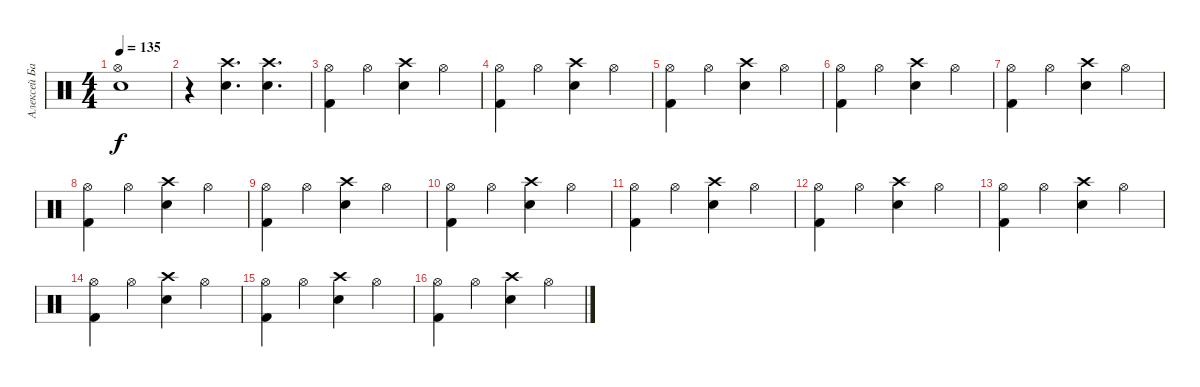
\track ("Алексей Барзилович" "Алексей Ба") {instrument percussion}
\staff {score}
\articulation defaults
\ts (4 4)
\tempo 135
\clef neutral
\ks c
("Hi-Hat (open)" "Electric Snare (hit)").1{dy f} |
r.4 ("Electric Snare (hit)" "Crash high (hit)").4{d} ("Electric Snare (hit)" "Crash high (hit)").4{d} |
("Kick (hit) 2" "Hi-Hat (open)").4 "Hi-Hat (open)".4 ("Electric Snare (hit)" "Crash high (hit)").4 "Hi-Hat (open)".4 |
("Kick (hit) 2" "Hi-Hat (open)").4 "Hi-Hat (open)".4 ("Electric Snare (hit)" "Crash high (hit)").4 "Hi-Hat (open)".4 |
("Kick (hit) 2" "Hi-Hat (open)").4 "Hi-Hat (open)".4 ("Electric Snare (hit)" "Crash high (hit)").4 "Hi-Hat (open)".4 |
("Kick (hit) 2" "Hi-Hat (open)").4 "Hi-Hat (open)".4 ("Electric Snare (hit)" "Crash high (hit)").4 "Hi-Hat (open)".4 |
("Kick (hit) 2" "Hi-Hat (open)").4 "Hi-Hat (open)".4 ("Electric Snare (hit)" "Crash high (hit)").4 "Hi-Hat (open)".4 |
("Kick (hit) 2" "Hi-Hat (open)").4 "Hi-Hat (open)".4 ("Electric Snare (hit)" "Crash high (hit)").4 "Hi-Hat (open)".4 |
("Kick (hit) 2" "Hi-Hat (open)").4 "Hi-Hat (open)".4 ("Electric Snare (hit)" "Crash high (hit)").4 "Hi-Hat (open)".4 |
("Kick (hit) 2" "Hi-Hat (open)").4 "Hi-Hat (open)".4 ("Electric Snare (hit)" "Crash high (hit)").4 "Hi-Hat (open)".4 |
("Kick (hit) 2" "Hi-Hat (open)").4 "Hi-Hat (open)".4 ("Electric Snare (hit)" "Crash high (hit)").4 "Hi-Hat (open)".4 |
("Kick (hit) 2" "Hi-Hat (open)").4 "Hi-Hat (open)".4 ("Electric Snare (hit)" "Crash high (hit)").4 "Hi-Hat (open)".4 |
("Kick (hit) 2" "Hi-Hat (open)").4 "Hi-Hat (open)".4 ("Electric Snare (hit)" "Crash high (hit)").4 "Hi-Hat (open)".4 |
("Kick (hit) 2" "Hi-Hat (open)").4 "Hi-Hat (open)".4 ("Electric Snare (hit)" "Crash high (hit)").4 "Hi-Hat (open)".4 |
("Kick (hit) 2" "Hi-Hat (open)").4 "Hi-Hat (open)".4 ("Electric Snare (hit)" "Crash high (hit)").4 "Hi-Hat (open)".4 |
("Kick (hit) 2" "Hi-Hat (open)").4 "Hi-Hat (open)".4 ("Electric Snare (hit)" "Crash high (hit)").4 "Hi-Hat (open)".4
